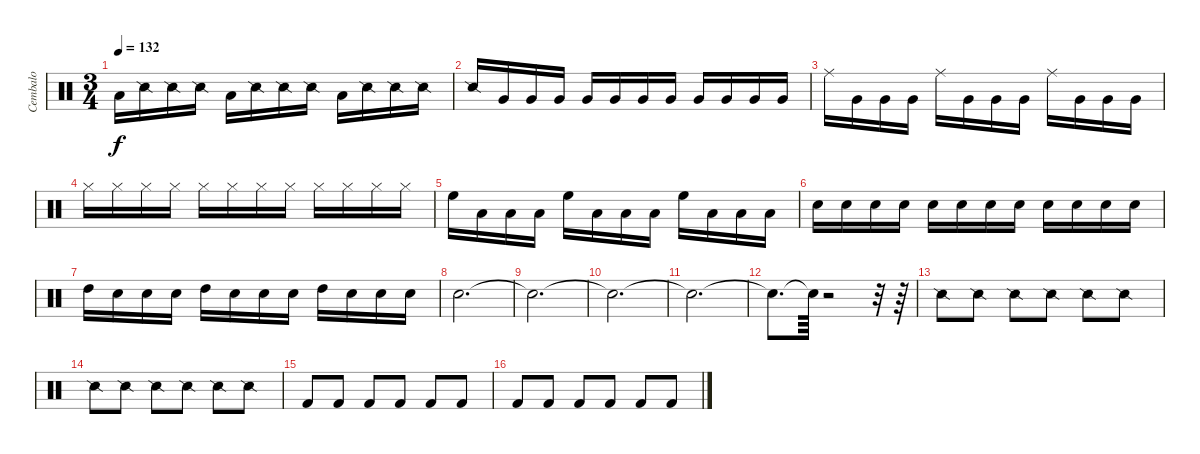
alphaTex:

\track ("Cembalo" "Cembalo") {instrument percussion}
\staff {score}
\articulation defaults
\ts (3 4)
\tempo 132
\clef neutral
\ks c "Low Floor Tom (hit)".16{dy f} "Snare (side stick) 2".16 "Snare (side stick) 2".16 "Snare (side stick) 2".16 "Low Floor Tom (hit)".16 "Snare (side stick) 2".16 "Snare (side stick) 2".16 "Snare (side stick) 2".16 "Low Floor Tom (hit)".16 "Snare (side stick) 2".16 "Snare (side stick) 2".16 "Snare (side stick) 2".16
|
"Snare (side stick) 2".16 "Very Low Tom (hit)".16 "Very Low Tom (hit)".16 "Very Low Tom (hit)".16 "Very Low Tom (hit)".16 "Very Low Tom (hit)".16 "Very Low Tom (hit)".16 "Very Low Tom (hit)".16 "Very Low Tom (hit)".16 "Very Low Tom (hit)".16 "Very Low Tom (hit)".16 "Very Low Tom (hit)".16 |
"Ride (middle)".16 "Very Low Tom (hit)".16 "Very Low Tom (hit)".16 "Very Low Tom (hit)".16 "Ride (middle)".16 "Very Low Tom (hit)".16 "Very Low Tom (hit)".16 "Very Low Tom (hit)".16 "Ride (middle)".16 "Very Low Tom (hit)".16 "Very Low Tom (hit)".16 "Very Low Tom (hit)".16 |
"Hi-Hat (closed)".16 "Hi-Hat (closed)".16 "Hi-Hat (closed)".16 "Hi-Hat (closed)".16 "Hi-Hat (closed)".16 "Hi-Hat (closed)".16 "Hi-Hat (closed)".16 "Hi-Hat (closed)".16 "Hi-Hat (closed)".16 "Hi-Hat (closed)".16 "Hi-Hat (closed)".16 "Hi-Hat (closed)".16 |
"High Floor Tom (hit)".16 "Low Floor Tom (hit)".16 "Low Floor Tom (hit)".16 "Low Floor Tom (hit)".16 "High Floor Tom (hit)".16 "Low Floor Tom (hit)".16 "Low Floor Tom (hit)".16 "Low Floor Tom (hit)".16 "High Floor Tom (hit)".16 "Low Floor Tom (hit)".16 "Low Floor Tom (hit)".16 "Low Floor Tom (hit)".16 |
"Electric Snare (hit)".16 "Electric Snare (hit)".16 "Electric Snare (hit)".16 "Electric Snare (hit)".16 "Electric Snare (hit)".16 "Electric Snare (hit)".16 "Electric Snare (hit)".16 "Electric Snare (hit)".16 "Electric Snare (hit)".16 "Electric Snare (hit)".16 "Electric Snare (hit)".16 "Electric Snare (hit)".16 |
"High Tom (hit)".16 "Hand Clap (hit)".16 "Hand Clap (hit)".16 "Hand Clap (hit)".16 "High Tom (hit)".16 "Hand Clap (hit)".16 "Hand Clap (hit)".16 "Hand Clap (hit)".16 "High Tom (hit)".16 "Hand Clap (hit)".16 "Hand Clap (hit)".16 "Hand Clap (hit)".16 |
"Snare (hit) 2".2{d} |
"Snare (hit)"{t}.2{d} |
"Snare (hit)"{t}.2{d} |
"Snare (hit)"{t}.2{d} |
"Snare (hit)"{t}.8{d} "Snare (hit)"{t}.64 r.2 r.32 r.64 |
"Snare (side stick) 2".8 "Snare (side stick) 2".8 "Snare (side stick) 2".8 "Snare (side stick) 2".8 "Snare (side stick) 2".8 "Snare (side stick) 2".8 |
"Snare (side stick) 2".8 "Snare (side stick) 2".8 "Snare (side stick) 2".8 "Snare (side stick) 2".8 "Snare (side stick) 2".8 "Snare (side stick) 2".8 |
"Kick (hit) 2".8 "Kick (hit) 2".8 "Kick (hit) 2".8 "Kick (hit) 2".8 "Kick (hit) 2".8 "Kick (hit) 2".8 |
"Kick (hit) 2".8 "Kick (hit) 2".8 "Kick (hit) 2".8 "Kick (hit) 2".8 "Kick (hit) 2".8 "Kick (hit) 2".8
